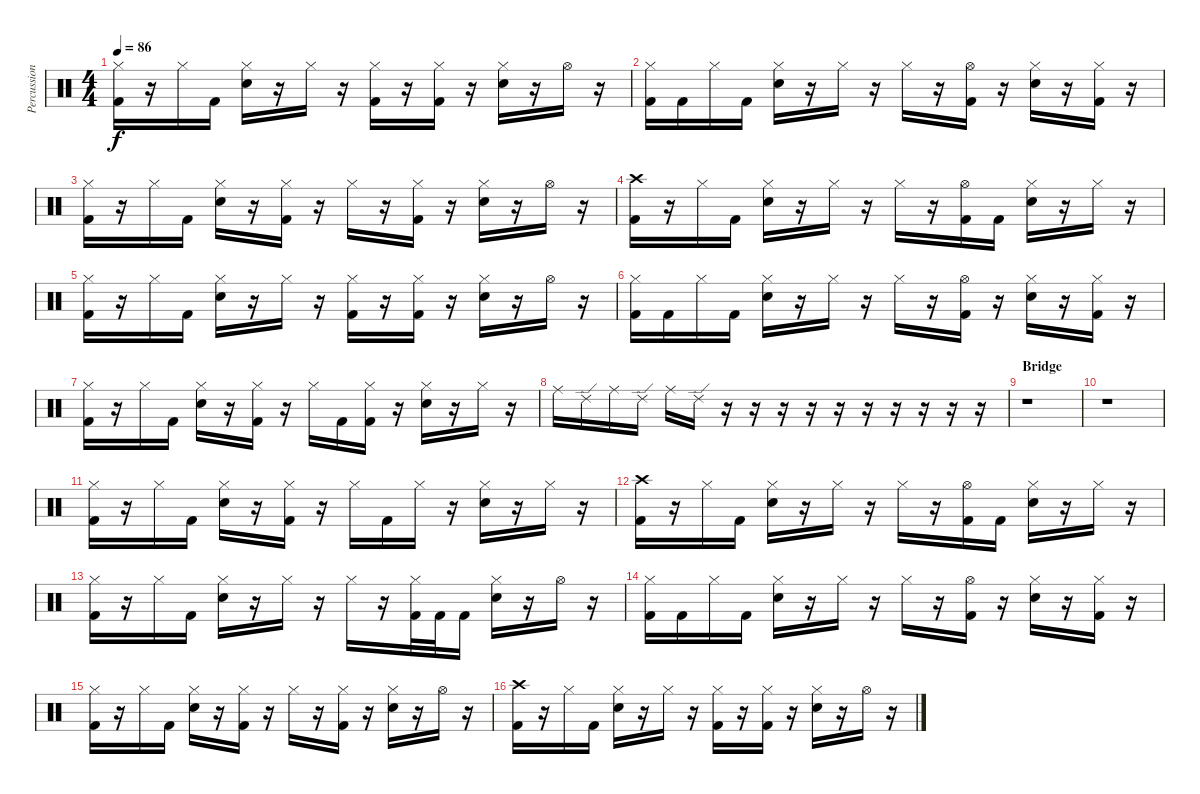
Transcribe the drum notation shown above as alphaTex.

\track ("Percussions" "Percussion") {instrument percussion}
\staff {score}
\articulation defaults
\ts (4 4)
\tempo 86
\clef neutral
\ks c
("Hi-Hat (closed)" "Kick (hit) 2").16{dy f} r.16 "Hi-Hat (closed)".16 "Kick (hit) 2".16 ("Hi-Hat (closed)" "Snare (hit) 2").16 r.16 "Hi-Hat (closed)".16 r.16 ("Hi-Hat (closed)" "Kick (hit) 2").16 r.16 ("Hi-Hat (closed)" "Kick (hit) 2").16 r.16 ("Hi-Hat (closed)" "Snare (hit) 2").16 r.16 "Hi-Hat (open)".16 r.16 |
("Hi-Hat (closed)" "Kick (hit) 2").16 "Kick (hit) 2".16 "Hi-Hat (closed)".16 "Kick (hit) 2".16 ("Hi-Hat (closed)" "Snare (hit) 2").16 r.16 "Hi-Hat (closed)".16 r.16 "Hi-Hat (closed)".16 r.16 ("Hi-Hat (open)" "Kick (hit) 2").16 r.16 ("Hi-Hat (closed)" "Snare (hit) 2").16 r.16 ("Hi-Hat (closed)" "Kick (hit) 2").16 r.16 |
("Hi-Hat (closed)" "Kick (hit) 2").16 r.16 "Hi-Hat (closed)".16 "Kick (hit) 2".16 ("Hi-Hat (closed)" "Snare (hit) 2").16 r.16 ("Hi-Hat (closed)" "Kick (hit) 2").16 r.16 "Hi-Hat (closed)".16 r.16 ("Hi-Hat (closed)" "Kick (hit) 2").16 r.16 ("Hi-Hat (closed)" "Snare (hit) 2").16 r.16 "Hi-Hat (open)".16 r.16 |
("Crash high (hit)" "Kick (hit) 2").16 r.16 "Hi-Hat (closed)".16 "Kick (hit) 2".16 ("Hi-Hat (closed)" "Snare (hit) 2").16 r.16 "Hi-Hat (closed)".16 r.16 "Hi-Hat (closed)".16 r.16 ("Hi-Hat (open)" "Kick (hit) 2").16 "Kick (hit) 2".16 ("Hi-Hat (closed)" "Snare (hit) 2").16 r.16 "Hi-Hat (closed)".16 r.16 |
("Hi-Hat (closed)" "Kick (hit) 2").16 r.16 "Hi-Hat (closed)".16 "Kick (hit) 2".16 ("Hi-Hat (closed)" "Snare (hit) 2").16 r.16 "Hi-Hat (closed)".16 r.16 ("Hi-Hat (closed)" "Kick (hit) 2").16 r.16 ("Hi-Hat (closed)" "Kick (hit) 2").16 r.16 ("Hi-Hat (closed)" "Snare (hit) 2").16 r.16 "Hi-Hat (open)".16 r.16 |
("Hi-Hat (closed)" "Kick (hit) 2").16 "Kick (hit) 2".16 "Hi-Hat (closed)".16 "Kick (hit) 2".16 ("Hi-Hat (closed)" "Snare (hit) 2").16 r.16 "Hi-Hat (closed)".16 r.16 "Hi-Hat (closed)".16 r.16 ("Hi-Hat (open)" "Kick (hit) 2").16 r.16 ("Hi-Hat (closed)" "Snare (hit) 2").16 r.16 ("Hi-Hat (closed)" "Kick (hit) 2").16 r.16 |
("Hi-Hat (closed)" "Kick (hit) 2").16 r.16 "Hi-Hat (closed)".16 "Kick (hit) 2".16 ("Hi-Hat (closed)" "Snare (hit) 2").16 r.16 ("Hi-Hat (closed)" "Kick (hit) 2").16 r.16 "Hi-Hat (closed)".16 "Kick (hit) 2".16 ("Hi-Hat (closed)" "Kick (hit) 2").16 r.16 ("Hi-Hat (closed)" "Snare (hit) 2").16 r.16 "Hi-Hat (closed)".16 r.16 |
"Ride (middle)".16 "Ride (edge) 2".16 "Ride (middle)".16 "Ride (edge) 2".16 "Ride (middle)".16 "Ride (edge) 2".16 r.16 r.16 r.16 r.16 r.16 r.16 r.16 r.16 r.16 r.16 |
\section ("" "Bridge")
r.1 |
r.1 |
("Hi-Hat (closed)" "Kick (hit) 2").16 r.16 "Hi-Hat (closed)".16 "Kick (hit) 2".16 ("Hi-Hat (closed)" "Snare (hit) 2").16 r.16 ("Hi-Hat (closed)" "Kick (hit) 2").16 r.16 "Hi-Hat (closed)".16 "Kick (hit) 2".16 "Hi-Hat (closed)".16 r.16 ("Hi-Hat (closed)" "Snare (hit) 2").16 r.16 "Hi-Hat (closed)".16 r.16 |
("Crash high (hit)" "Kick (hit) 2").16 r.16 "Hi-Hat (closed)".16 "Kick (hit) 2".16 ("Hi-Hat (closed)" "Snare (hit) 2").16 r.16 "Hi-Hat (closed)".16 r.16 "Hi-Hat (closed)".16 r.16 ("Hi-Hat (open)" "Kick (hit) 2").16 "Kick (hit) 2".16 ("Hi-Hat (closed)" "Snare (hit) 2").16 r.16 "Hi-Hat (closed)".16 r.16 |
("Hi-Hat (closed)" "Kick (hit) 2").16 r.16 "Hi-Hat (closed)".16 "Kick (hit) 2".16 ("Hi-Hat (closed)" "Snare (hit) 2").16 r.16 "Hi-Hat (closed)".16 r.16 "Hi-Hat (closed)".16 r.16 ("Hi-Hat (closed)" "Kick (hit) 2").32 "Kick (hit) 2".32 "Kick (hit) 2".16 ("Hi-Hat (closed)" "Snare (hit) 2").16 r.16 "Hi-Hat (open)".16 r.16 |
("Hi-Hat (closed)" "Kick (hit) 2").16 "Kick (hit) 2".16 "Hi-Hat (closed)".16 "Kick (hit) 2".16 ("Hi-Hat (closed)" "Snare (hit) 2").16 r.16 "Hi-Hat (closed)".16 r.16 "Hi-Hat (closed)".16 r.16 ("Hi-Hat (open)" "Kick (hit) 2").16 r.16 ("Hi-Hat (closed)" "Snare (hit) 2").16 r.16 ("Hi-Hat (closed)" "Kick (hit) 2").16 r.16 |
("Hi-Hat (closed)" "Kick (hit) 2").16 r.16 "Hi-Hat (closed)".16 "Kick (hit) 2".16 ("Hi-Hat (closed)" "Snare (hit) 2").16 r.16 ("Hi-Hat (closed)" "Kick (hit) 2").16 r.16 "Hi-Hat (closed)".16 r.16 ("Hi-Hat (closed)" "Kick (hit) 2").16 r.16 ("Hi-Hat (closed)" "Snare (hit) 2").16 r.16 "Hi-Hat (open)".16 r.16 |
("Crash high (hit)" "Kick (hit) 2").16 r.16 "Hi-Hat (closed)".16 "Kick (hit) 2".16 ("Hi-Hat (closed)" "Snare (hit) 2").16 r.16 "Hi-Hat (closed)".16 r.16 ("Hi-Hat (closed)" "Kick (hit) 2").16 r.16 ("Hi-Hat (closed)" "Kick (hit) 2").16 r.16 ("Hi-Hat (closed)" "Snare (hit) 2").16 r.16 "Hi-Hat (open)".16 r.16
